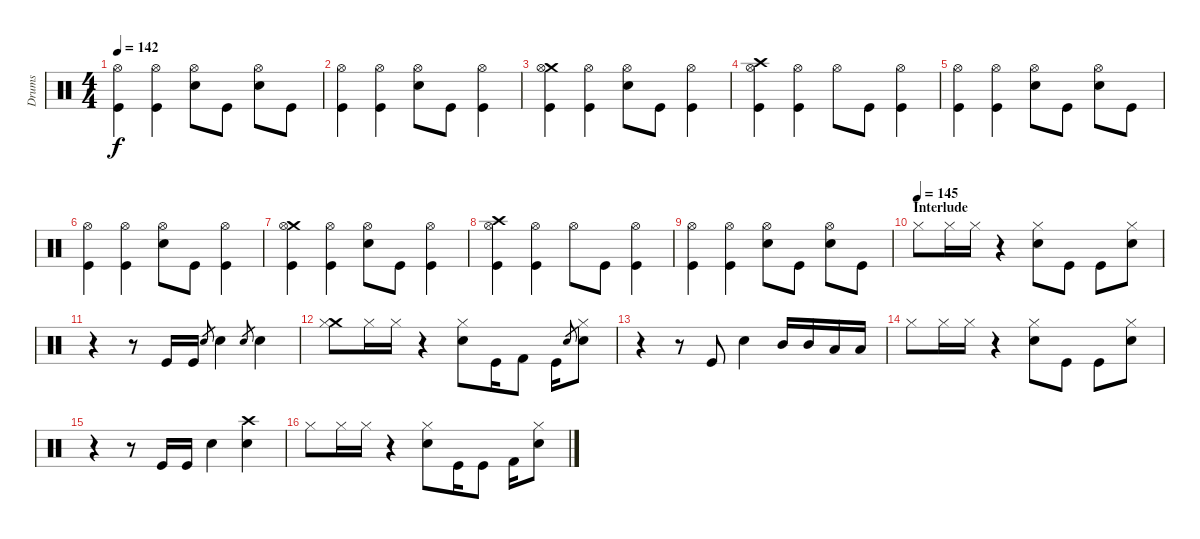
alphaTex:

\track ("Drums" "Drums") {instrument percussion}
\staff {score}
\articulation defaults
\ts (4 4)
\tempo 142
\clef neutral
\ks c
("Hi-Hat (open)" "Kick (hit)").4{dy f} ("Hi-Hat (open)" "Kick (hit)").4 ("Hi-Hat (open)" "Snare (hit) 2").8 "Kick (hit)".8 ("Hi-Hat (open)" "Snare (hit) 2").8 "Kick (hit)".8 |
("Hi-Hat (open)" "Kick (hit)").4 ("Hi-Hat (open)" "Kick (hit)").4 ("Hi-Hat (open)" "Snare (hit) 2").8 "Kick (hit)".8 ("Hi-Hat (open)" "Kick (hit)").4 |
("Crash medium (hit)" "Hi-Hat (open)" "Kick (hit)").4 ("Hi-Hat (open)" "Kick (hit)").4 ("Hi-Hat (open)" "Snare (hit) 2").8 "Kick (hit)".8 ("Hi-Hat (open)" "Kick (hit)").4 |
("Crash high (hit)" "Hi-Hat (open)" "Kick (hit)").4 ("Hi-Hat (open)" "Kick (hit)").4 "Hi-Hat (open)".8 "Kick (hit)".8 ("Hi-Hat (open)" "Kick (hit)").4 |
("Hi-Hat (open)" "Kick (hit)").4 ("Hi-Hat (open)" "Kick (hit)").4 ("Hi-Hat (open)" "Snare (hit) 2").8 "Kick (hit)".8 ("Hi-Hat (open)" "Snare (hit) 2").8 "Kick (hit)".8 |
("Hi-Hat (open)" "Kick (hit)").4 ("Hi-Hat (open)" "Kick (hit)").4 ("Hi-Hat (open)" "Snare (hit) 2").8 "Kick (hit)".8 ("Hi-Hat (open)" "Kick (hit)").4 |
("Crash medium (hit)" "Hi-Hat (open)" "Kick (hit)").4 ("Hi-Hat (open)" "Kick (hit)").4 ("Hi-Hat (open)" "Snare (hit) 2").8 "Kick (hit)".8 ("Hi-Hat (open)" "Kick (hit)").4 |
("Crash high (hit)" "Hi-Hat (open)" "Kick (hit)").4 ("Hi-Hat (open)" "Kick (hit)").4 "Hi-Hat (open)".8 "Kick (hit)".8 ("Hi-Hat (open)" "Kick (hit)").4 |
("Hi-Hat (open)" "Kick (hit)").4 ("Hi-Hat (open)" "Kick (hit)").4 ("Hi-Hat (open)" "Snare (hit) 2").8 "Kick (hit)".8 ("Hi-Hat (open)" "Snare (hit) 2").8 "Kick (hit)".8 |
\section ("" "Interlude")
\tempo (145)
"Hi-Hat (closed)".8 "Hi-Hat (closed)".16 "Hi-Hat (closed)".16 r.4 ("Hi-Hat (closed)" "Snare (hit) 2").8 "Kick (hit)".8 "Kick (hit)".8 ("Hi-Hat (closed)" "Snare (hit) 2").8 |
r.4 r.8 "Kick (hit)".16 "Kick (hit)".16 "Snare (hit) 2".8{gr} "Snare (hit) 2".4 "Snare (hit) 2".8{gr} "Snare (hit) 2".4 |
("Crash medium (hit)" "Hi-Hat (closed)").8 "Hi-Hat (closed)".16 "Hi-Hat (closed)".16 r.4 ("Hi-Hat (closed)" "Snare (hit) 2").8 "Kick (hit)".16 "Kick (hit) 2".8 "Kick (hit)".16 "Snare (hit) 2".8{gr} ("Hi-Hat (closed)" "Snare (hit) 2").8 |
r.4 r.8 "Kick (hit)".8 "Snare (hit) 2".4 "Mid Tom (hit)".16 "Mid Tom (hit)".16 "Low Tom (hit)".16 "Low Tom (hit)".16 |
"Hi-Hat (closed)".8 "Hi-Hat (closed)".16 "Hi-Hat (closed)".16 r.4 ("Hi-Hat (closed)" "Snare (hit) 2").8 "Kick (hit)".8 "Kick (hit)".8 ("Hi-Hat (closed)" "Snare (hit) 2").8 |
r.4 r.8 "Kick (hit)".16 "Kick (hit)".16 "Snare (hit) 2".4 ("Crash high (hit)" "Snare (hit) 2").4 |
"Hi-Hat (closed)".8 "Hi-Hat (closed)".16 "Hi-Hat (closed)".16 r.4 ("Hi-Hat (closed)" "Snare (hit) 2").8 "Kick (hit)".16 "Kick (hit)".8 "Kick (hit) 2".16 ("Hi-Hat (closed)" "Snare (hit) 2").8
